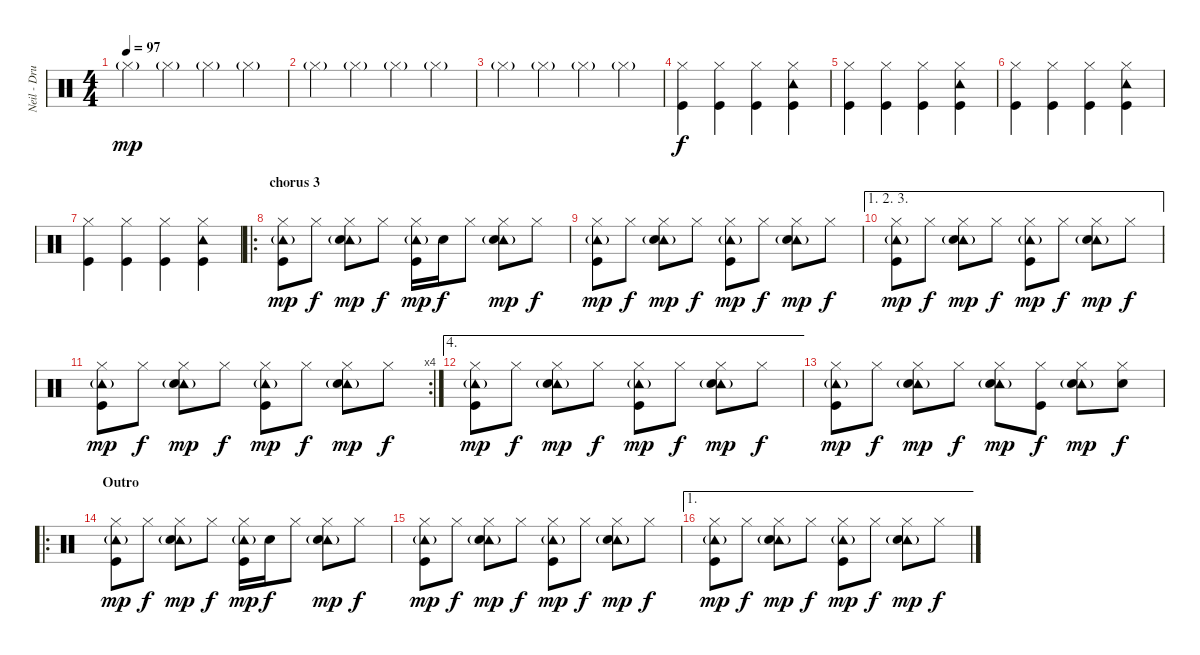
\track ("Neil - Drums" "Neil - Dru") {instrument percussion}
\staff {score}
\articulation defaults
\ts (4 4)
\tempo 97
\clef neutral
\ks c "Hi-Hat (closed)"{g}.4{dy mp} "Hi-Hat (closed)"{g}.4 "Hi-Hat (closed)"{g}.4 "Hi-Hat (closed)"{g}.4
|
"Hi-Hat (closed)"{g}.4 "Hi-Hat (closed)"{g}.4 "Hi-Hat (closed)"{g}.4 "Hi-Hat (closed)"{g}.4 |
"Hi-Hat (closed)"{g}.4 "Hi-Hat (closed)"{g}.4 "Hi-Hat (closed)"{g}.4 "Hi-Hat (closed)"{g}.4 |
("Hi-Hat (closed)" "Kick (hit)").4{dy f} ("Hi-Hat (closed)" "Kick (hit)").4 ("Hi-Hat (closed)" "Kick (hit)").4 ("Hi-Hat (closed)" "Tambourine (hit)" "Kick (hit)").4 |
("Hi-Hat (closed)" "Kick (hit)").4 ("Hi-Hat (closed)" "Kick (hit)").4 ("Hi-Hat (closed)" "Kick (hit)").4 ("Hi-Hat (closed)" "Tambourine (hit)" "Kick (hit)").4 |
("Hi-Hat (closed)" "Kick (hit)").4 ("Hi-Hat (closed)" "Kick (hit)").4 ("Hi-Hat (closed)" "Kick (hit)").4 ("Hi-Hat (closed)" "Tambourine (hit)" "Kick (hit)").4 |
("Hi-Hat (closed)" "Kick (hit)").4 ("Hi-Hat (closed)" "Kick (hit)").4 ("Hi-Hat (closed)" "Kick (hit)").4 ("Hi-Hat (closed)" "Tambourine (hit)" "Kick (hit)").4 |
\ro
\section ("" "chorus 3")
("Hi-Hat (closed)" "Tambourine (hit)"{g} "Kick (hit)").8{dy mp} "Hi-Hat (closed)".8{dy f} ("Hi-Hat (closed)" "Tambourine (hit)"{g} "Electric Snare (hit)").8{dy mp} "Hi-Hat (closed)".8{dy f} ("Hi-Hat (closed)" "Tambourine (hit)"{g} "Kick (hit)").16{dy mp} "Electric Snare (hit)".16{dy f} "Hi-Hat (closed)".8 ("Hi-Hat (closed)" "Tambourine (hit)"{g} "Electric Snare (hit)").8{dy mp} "Hi-Hat (closed)".8{dy f} |
("Hi-Hat (closed)" "Tambourine (hit)"{g} "Kick (hit)").8{dy mp} "Hi-Hat (closed)".8{dy f} ("Hi-Hat (closed)" "Tambourine (hit)"{g} "Electric Snare (hit)").8{dy mp} "Hi-Hat (closed)".8{dy f} ("Hi-Hat (closed)" "Tambourine (hit)"{g} "Kick (hit)").8{dy mp} "Hi-Hat (closed)".8{dy f} ("Hi-Hat (closed)" "Tambourine (hit)"{g} "Electric Snare (hit)").8{dy mp} "Hi-Hat (closed)".8{dy f} |
\ae (1 2 3)
("Hi-Hat (closed)" "Tambourine (hit)"{g} "Kick (hit)").8{dy mp} "Hi-Hat (closed)".8{dy f} ("Hi-Hat (closed)" "Tambourine (hit)"{g} "Electric Snare (hit)").8{dy mp} "Hi-Hat (closed)".8{dy f} ("Hi-Hat (closed)" "Tambourine (hit)"{g} "Kick (hit)").8{dy mp} "Hi-Hat (closed)".8{dy f} ("Hi-Hat (closed)" "Tambourine (hit)"{g} "Electric Snare (hit)").8{dy mp} "Hi-Hat (closed)".8{dy f} |
\rc 4
("Hi-Hat (closed)" "Tambourine (hit)"{g} "Kick (hit)").8{dy mp} "Hi-Hat (closed)".8{dy f} ("Hi-Hat (closed)" "Tambourine (hit)"{g} "Electric Snare (hit)").8{dy mp} "Hi-Hat (closed)".8{dy f} ("Hi-Hat (closed)" "Tambourine (hit)"{g} "Kick (hit)").8{dy mp} "Hi-Hat (closed)".8{dy f} ("Hi-Hat (closed)" "Tambourine (hit)"{g} "Electric Snare (hit)").8{dy mp} "Hi-Hat (closed)".8{dy f} |
\ae 4
("Hi-Hat (closed)" "Tambourine (hit)"{g} "Kick (hit)").8{dy mp} "Hi-Hat (closed)".8{dy f} ("Hi-Hat (closed)" "Tambourine (hit)"{g} "Electric Snare (hit)").8{dy mp} "Hi-Hat (closed)".8{dy f} ("Hi-Hat (closed)" "Tambourine (hit)"{g} "Kick (hit)").8{dy mp} "Hi-Hat (closed)".8{dy f} ("Hi-Hat (closed)" "Tambourine (hit)"{g} "Electric Snare (hit)").8{dy mp} "Hi-Hat (closed)".8{dy f} |
("Hi-Hat (closed)" "Tambourine (hit)"{g} "Kick (hit)").8{dy mp} "Hi-Hat (closed)".8{dy f} ("Hi-Hat (closed)" "Tambourine (hit)"{g} "Electric Snare (hit)").8{dy mp} "Hi-Hat (closed)".8{dy f} ("Hi-Hat (closed)" "Tambourine (hit)"{g} "Electric Snare (hit)").8{dy mp} ("Hi-Hat (closed)" "Kick (hit)").8{dy f} ("Hi-Hat (closed)" "Tambourine (hit)"{g} "Electric Snare (hit)").8{dy mp} ("Hi-Hat (closed)" "Electric Snare (hit)").8{dy f} |
\ro
\section ("" "Outro")
("Hi-Hat (closed)" "Tambourine (hit)"{g} "Kick (hit)").8{dy mp} "Hi-Hat (closed)".8{dy f} ("Hi-Hat (closed)" "Tambourine (hit)"{g} "Electric Snare (hit)").8{dy mp} "Hi-Hat (closed)".8{dy f} ("Hi-Hat (closed)" "Tambourine (hit)"{g} "Kick (hit)").16{dy mp} "Electric Snare (hit)".16{dy f} "Hi-Hat (closed)".8 ("Hi-Hat (closed)" "Tambourine (hit)"{g} "Electric Snare (hit)").8{dy mp} "Hi-Hat (closed)".8{dy f} |
("Hi-Hat (closed)" "Tambourine (hit)"{g} "Kick (hit)").8{dy mp} "Hi-Hat (closed)".8{dy f} ("Hi-Hat (closed)" "Tambourine (hit)"{g} "Electric Snare (hit)").8{dy mp} "Hi-Hat (closed)".8{dy f} ("Hi-Hat (closed)" "Tambourine (hit)"{g} "Kick (hit)").8{dy mp} "Hi-Hat (closed)".8{dy f} ("Hi-Hat (closed)" "Tambourine (hit)"{g} "Electric Snare (hit)").8{dy mp} "Hi-Hat (closed)".8{dy f} |
\ae 1
("Hi-Hat (closed)" "Tambourine (hit)"{g} "Kick (hit)").8{dy mp} "Hi-Hat (closed)".8{dy f} ("Hi-Hat (closed)" "Tambourine (hit)"{g} "Electric Snare (hit)").8{dy mp} "Hi-Hat (closed)".8{dy f} ("Hi-Hat (closed)" "Tambourine (hit)"{g} "Kick (hit)").8{dy mp} "Hi-Hat (closed)".8{dy f} ("Hi-Hat (closed)" "Tambourine (hit)"{g} "Electric Snare (hit)").8{dy mp} "Hi-Hat (closed)".8{dy f}
